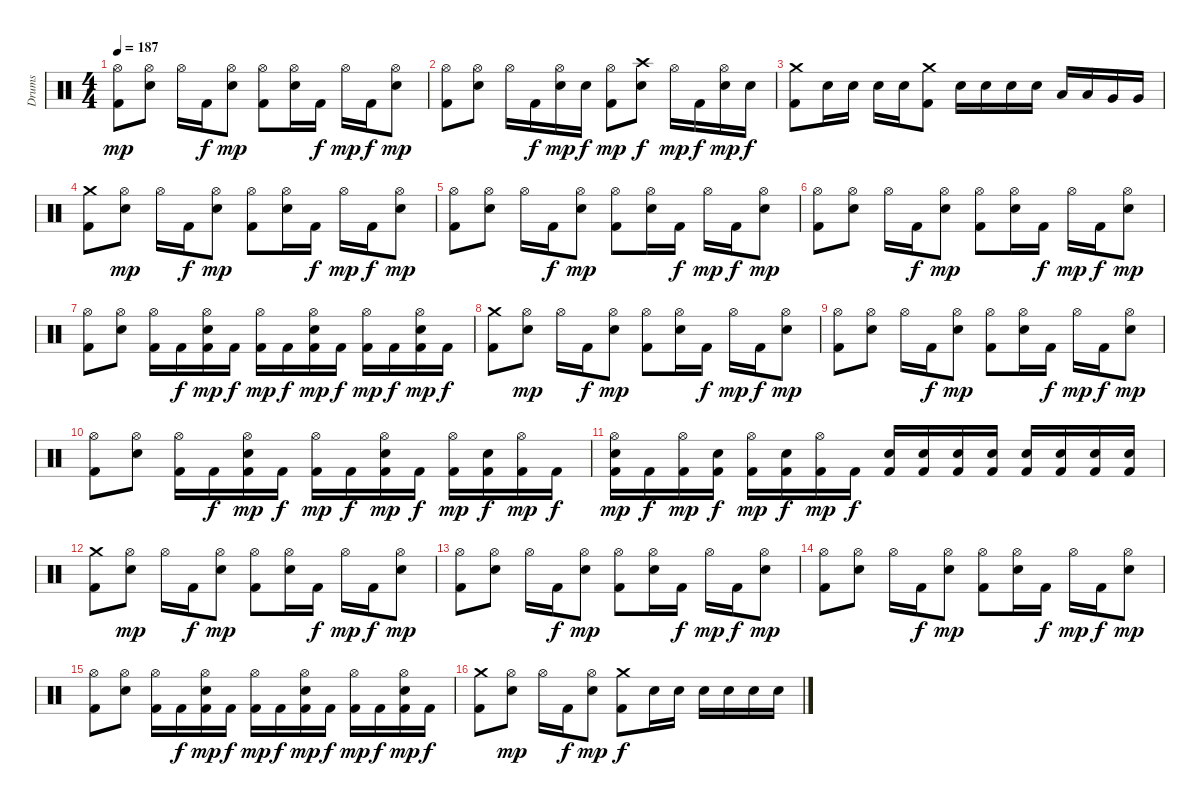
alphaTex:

\track ("Drums" "Drums") {instrument percussion}
\staff {score}
\articulation defaults
\ts (4 4)
\tempo 187
\clef neutral
\ks c
("Hi-Hat (open)" "Kick (hit) 2").8{dy mp} ("Hi-Hat (open)" "Snare (hit) 2").8 "Hi-Hat (open)".16 "Kick (hit) 2".16{dy f} ("Hi-Hat (open)" "Snare (hit) 2").8{dy mp} ("Hi-Hat (open)" "Kick (hit) 2").8 ("Hi-Hat (open)" "Snare (hit) 2").16 "Kick (hit) 2".16{dy f} "Hi-Hat (open)".16{dy mp} "Kick (hit) 2".16{dy f} ("Hi-Hat (open)" "Snare (hit) 2").8{dy mp} |
("Hi-Hat (open)" "Kick (hit) 2").8 ("Hi-Hat (open)" "Snare (hit) 2").8 "Hi-Hat (open)".16 "Kick (hit) 2".16{dy f} ("Hi-Hat (open)" "Snare (hit) 2").16{dy mp} "Snare (hit) 2".16{dy f} ("Hi-Hat (open)" "Kick (hit) 2").8{dy mp} ("Crash high (hit)" "Snare (hit) 2").8{dy f} "Hi-Hat (open)".16{dy mp} "Kick (hit) 2".16{dy f} ("Hi-Hat (open)" "Snare (hit) 2").16{dy mp} "Snare (hit) 2".16{dy f} |
("Crash medium (hit)" "Kick (hit) 2").8 "Snare (hit) 2".16 "Snare (hit) 2".16 "Snare (hit) 2".16 "Snare (hit) 2".16 ("Crash medium (hit)" "Kick (hit) 2").8 "Snare (hit) 2".16 "Snare (hit) 2".16 "Snare (hit) 2".16 "Snare (hit) 2".16 "Low Tom (hit)".16 "Low Tom (hit)".16 "Very Low Tom (hit)".16 "Very Low Tom (hit)".16 |
("Crash medium (hit)" "Kick (hit) 2").8 ("Hi-Hat (open)" "Snare (hit) 2").8{dy mp} "Hi-Hat (open)".16 "Kick (hit) 2".16{dy f} ("Hi-Hat (open)" "Snare (hit) 2").8{dy mp} ("Hi-Hat (open)" "Kick (hit) 2").8 ("Hi-Hat (open)" "Snare (hit) 2").16 "Kick (hit) 2".16{dy f} "Hi-Hat (open)".16{dy mp} "Kick (hit) 2".16{dy f} ("Hi-Hat (open)" "Snare (hit) 2").8{dy mp} |
("Hi-Hat (open)" "Kick (hit) 2").8 ("Hi-Hat (open)" "Snare (hit) 2").8 "Hi-Hat (open)".16 "Kick (hit) 2".16{dy f} ("Hi-Hat (open)" "Snare (hit) 2").8{dy mp} ("Hi-Hat (open)" "Kick (hit) 2").8 ("Hi-Hat (open)" "Snare (hit) 2").16 "Kick (hit) 2".16{dy f} "Hi-Hat (open)".16{dy mp} "Kick (hit) 2".16{dy f} ("Hi-Hat (open)" "Snare (hit) 2").8{dy mp} |
("Hi-Hat (open)" "Kick (hit) 2").8 ("Hi-Hat (open)" "Snare (hit) 2").8 "Hi-Hat (open)".16 "Kick (hit) 2".16{dy f} ("Hi-Hat (open)" "Snare (hit) 2").8{dy mp} ("Hi-Hat (open)" "Kick (hit) 2").8 ("Hi-Hat (open)" "Snare (hit) 2").16 "Kick (hit) 2".16{dy f} "Hi-Hat (open)".16{dy mp} "Kick (hit) 2".16{dy f} ("Hi-Hat (open)" "Snare (hit) 2").8{dy mp} |
("Hi-Hat (open)" "Kick (hit) 2").8 ("Hi-Hat (open)" "Snare (hit) 2").8 ("Hi-Hat (open)" "Kick (hit) 2").16 "Kick (hit) 2".16{dy f} ("Hi-Hat (open)" "Snare (hit) 2" "Kick (hit) 2").16{dy mp} "Kick (hit) 2".16{dy f} ("Hi-Hat (open)" "Kick (hit) 2").16{dy mp} "Kick (hit) 2".16{dy f} ("Hi-Hat (open)" "Snare (hit) 2" "Kick (hit) 2").16{dy mp} "Kick (hit) 2".16{dy f} ("Hi-Hat (open)" "Kick (hit) 2").16{dy mp} "Kick (hit) 2".16{dy f} ("Hi-Hat (open)" "Snare (hit) 2" "Kick (hit) 2").16{dy mp} "Kick (hit) 2".16{dy f} |
("Crash medium (hit)" "Kick (hit) 2").8 ("Hi-Hat (open)" "Snare (hit) 2").8{dy mp} "Hi-Hat (open)".16 "Kick (hit) 2".16{dy f} ("Hi-Hat (open)" "Snare (hit) 2").8{dy mp} ("Hi-Hat (open)" "Kick (hit) 2").8 ("Hi-Hat (open)" "Snare (hit) 2").16 "Kick (hit) 2".16{dy f} "Hi-Hat (open)".16{dy mp} "Kick (hit) 2".16{dy f} ("Hi-Hat (open)" "Snare (hit) 2").8{dy mp} |
("Hi-Hat (open)" "Kick (hit) 2").8 ("Hi-Hat (open)" "Snare (hit) 2").8 "Hi-Hat (open)".16 "Kick (hit) 2".16{dy f} ("Hi-Hat (open)" "Snare (hit) 2").8{dy mp} ("Hi-Hat (open)" "Kick (hit) 2").8 ("Hi-Hat (open)" "Snare (hit) 2").16 "Kick (hit) 2".16{dy f} "Hi-Hat (open)".16{dy mp} "Kick (hit) 2".16{dy f} ("Hi-Hat (open)" "Snare (hit) 2").8{dy mp} |
("Hi-Hat (open)" "Kick (hit) 2").8 ("Hi-Hat (open)" "Snare (hit) 2").8 ("Hi-Hat (open)" "Kick (hit) 2").16 "Kick (hit) 2".16{dy f} ("Hi-Hat (open)" "Snare (hit) 2" "Kick (hit) 2").16{dy mp} "Kick (hit) 2".16{dy f} ("Hi-Hat (open)" "Kick (hit) 2").16{dy mp} "Kick (hit) 2".16{dy f} ("Hi-Hat (open)" "Snare (hit) 2" "Kick (hit) 2").16{dy mp} "Kick (hit) 2".16{dy f} ("Hi-Hat (open)" "Kick (hit) 2").16{dy mp} ("Snare (hit) 2" "Kick (hit) 2").16{dy f} ("Hi-Hat (open)" "Kick (hit) 2").16{dy mp} "Kick (hit) 2".16{dy f} |
("Hi-Hat (open)" "Snare (hit) 2" "Kick (hit) 2").16{dy mp} "Kick (hit) 2".16{dy f} ("Hi-Hat (open)" "Kick (hit) 2").16{dy mp} ("Snare (hit) 2" "Kick (hit) 2").16{dy f} ("Hi-Hat (open)" "Kick (hit) 2").16{dy mp} ("Snare (hit) 2" "Kick (hit) 2").16{dy f} ("Hi-Hat (open)" "Kick (hit) 2").16{dy mp} "Kick (hit) 2".16{dy f} ("Snare (hit) 2" "Kick (hit) 2").16 ("Snare (hit) 2" "Kick (hit) 2").16 ("Snare (hit) 2" "Kick (hit) 2").16 ("Snare (hit) 2" "Kick (hit) 2").16 ("Snare (hit) 2" "Kick (hit) 2").16 ("Snare (hit) 2" "Kick (hit) 2").16 ("Snare (hit) 2" "Kick (hit) 2").16 ("Snare (hit) 2" "Kick (hit) 2").16 |
("Crash medium (hit)" "Kick (hit) 2").8 ("Hi-Hat (open)" "Snare (hit) 2").8{dy mp} "Hi-Hat (open)".16 "Kick (hit) 2".16{dy f} ("Hi-Hat (open)" "Snare (hit) 2").8{dy mp} ("Hi-Hat (open)" "Kick (hit) 2").8 ("Hi-Hat (open)" "Snare (hit) 2").16 "Kick (hit) 2".16{dy f} "Hi-Hat (open)".16{dy mp} "Kick (hit) 2".16{dy f} ("Hi-Hat (open)" "Snare (hit) 2").8{dy mp} |
("Hi-Hat (open)" "Kick (hit) 2").8 ("Hi-Hat (open)" "Snare (hit) 2").8 "Hi-Hat (open)".16 "Kick (hit) 2".16{dy f} ("Hi-Hat (open)" "Snare (hit) 2").8{dy mp} ("Hi-Hat (open)" "Kick (hit) 2").8 ("Hi-Hat (open)" "Snare (hit) 2").16 "Kick (hit) 2".16{dy f} "Hi-Hat (open)".16{dy mp} "Kick (hit) 2".16{dy f} ("Hi-Hat (open)" "Snare (hit) 2").8{dy mp} |
("Hi-Hat (open)" "Kick (hit) 2").8 ("Hi-Hat (open)" "Snare (hit) 2").8 "Hi-Hat (open)".16 "Kick (hit) 2".16{dy f} ("Hi-Hat (open)" "Snare (hit) 2").8{dy mp} ("Hi-Hat (open)" "Kick (hit) 2").8 ("Hi-Hat (open)" "Snare (hit) 2").16 "Kick (hit) 2".16{dy f} "Hi-Hat (open)".16{dy mp} "Kick (hit) 2".16{dy f} ("Hi-Hat (open)" "Snare (hit) 2").8{dy mp} |
("Hi-Hat (open)" "Kick (hit) 2").8 ("Hi-Hat (open)" "Snare (hit) 2").8 ("Hi-Hat (open)" "Kick (hit) 2").16 "Kick (hit) 2".16{dy f} ("Hi-Hat (open)" "Snare (hit) 2" "Kick (hit) 2").16{dy mp} "Kick (hit) 2".16{dy f} ("Hi-Hat (open)" "Kick (hit) 2").16{dy mp} "Kick (hit) 2".16{dy f} ("Hi-Hat (open)" "Snare (hit) 2" "Kick (hit) 2").16{dy mp} "Kick (hit) 2".16{dy f} ("Hi-Hat (open)" "Kick (hit) 2").16{dy mp} "Kick (hit) 2".16{dy f} ("Hi-Hat (open)" "Snare (hit) 2" "Kick (hit) 2").16{dy mp} "Kick (hit) 2".16{dy f} |
("Crash medium (hit)" "Kick (hit) 2").8 ("Hi-Hat (open)" "Snare (hit) 2").8{dy mp} "Hi-Hat (open)".16 "Kick (hit) 2".16{dy f} ("Hi-Hat (open)" "Snare (hit) 2").8{dy mp} ("Crash medium (hit)" "Kick (hit) 2").8{dy f} "Snare (hit) 2".16 "Snare (hit) 2".16 "Snare (hit) 2".16 "Snare (hit) 2".16 "Snare (hit) 2".16 "Snare (hit) 2".16
